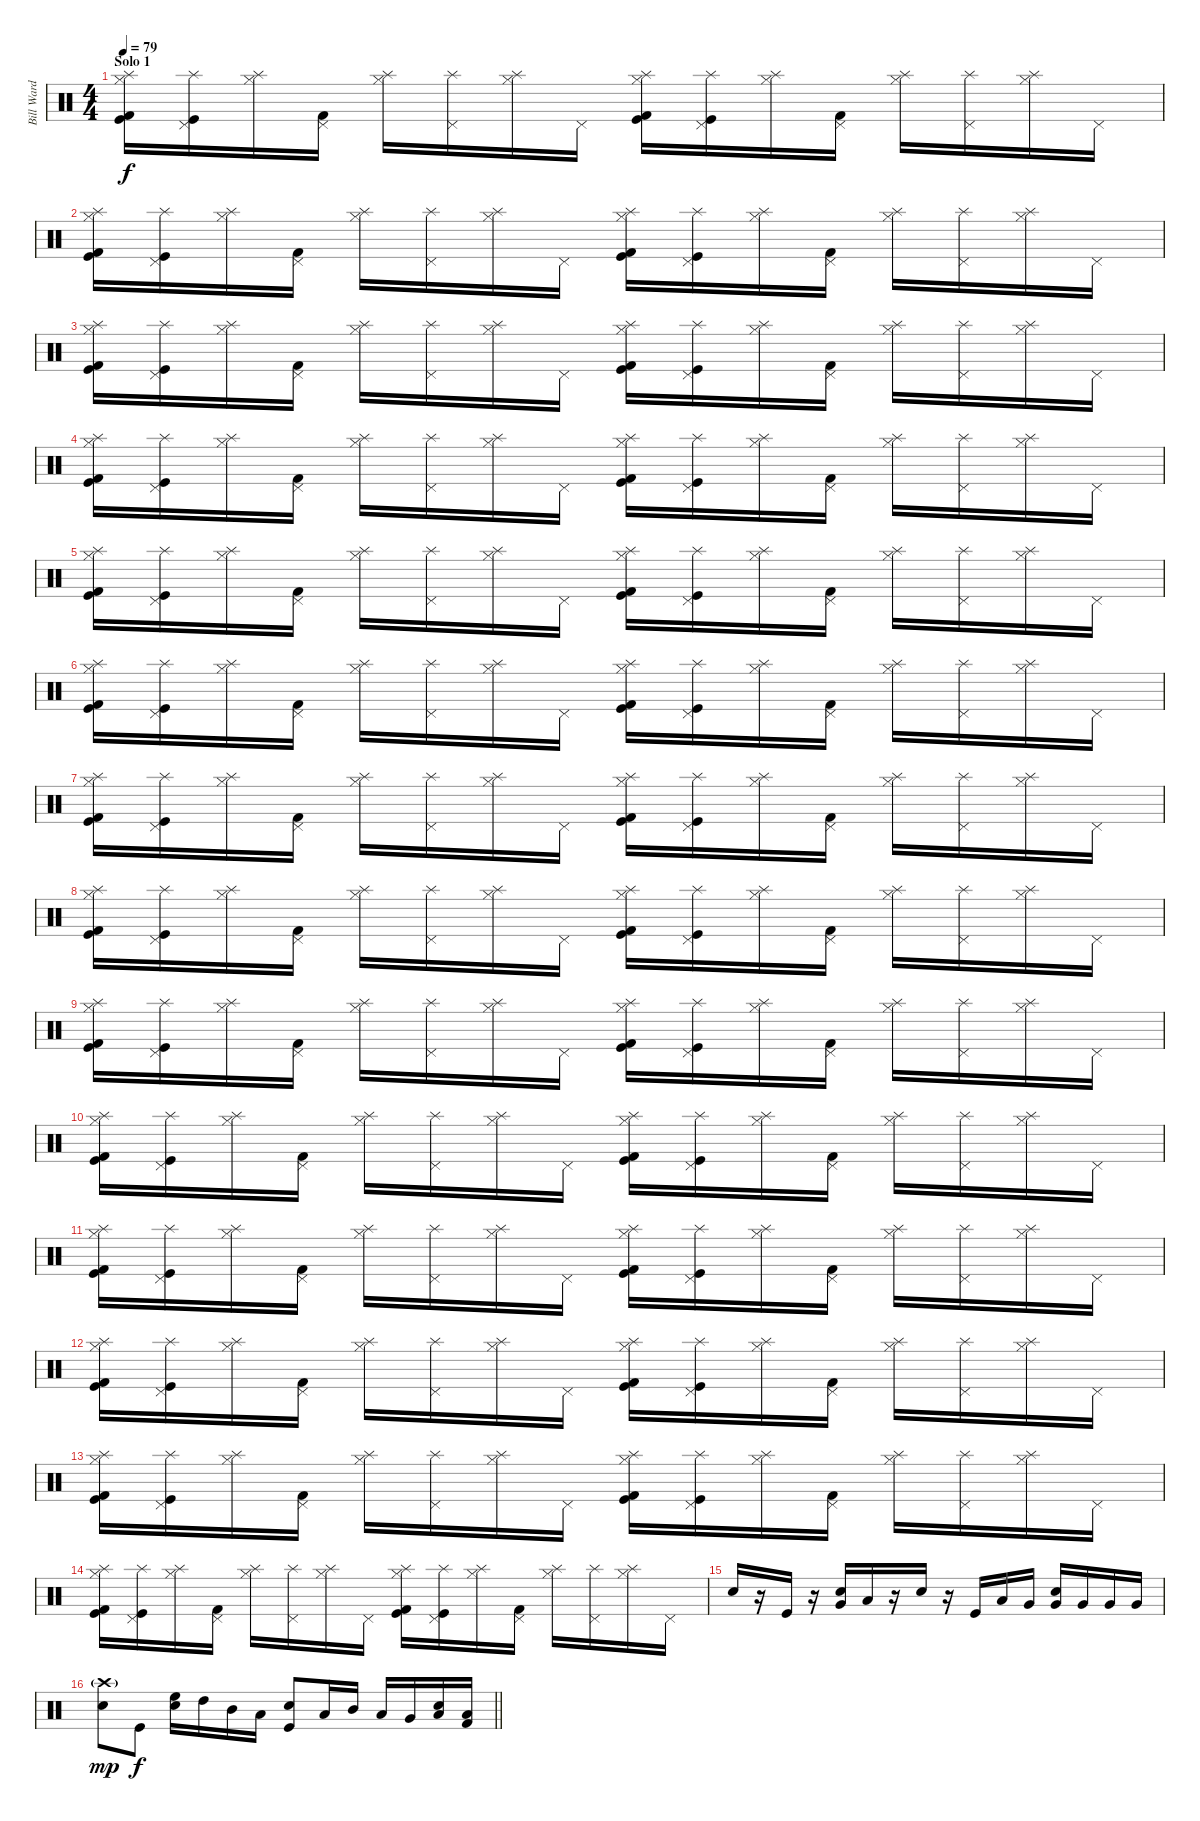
\track ("Bill Ward" "Bill Ward") {instrument percussion}
\staff {score}
\articulation defaults
\ts (4 4)
\section ("" "Solo 1")
\tempo 79
\clef neutral
\ks c
("Hi-Hat (closed)" "Kick (hit) 2" "Splash (hit)" "Kick (hit)").16{dy f} ("Pedal Hi-Hat (hit)" "Splash (hit)" "Kick (hit)").16 ("Hi-Hat (closed)" "Splash (hit)").16 ("Pedal Hi-Hat (hit)" "Kick (hit) 2").16 ("Hi-Hat (closed)" "Splash (hit)").16 ("Pedal Hi-Hat (hit)" "Splash (hit)").16 ("Hi-Hat (closed)" "Splash (hit)").16 "Pedal Hi-Hat (hit)".16 ("Hi-Hat (closed)" "Kick (hit) 2" "Splash (hit)" "Kick (hit)").16 ("Pedal Hi-Hat (hit)" "Splash (hit)" "Kick (hit)").16 ("Hi-Hat (closed)" "Splash (hit)").16 ("Pedal Hi-Hat (hit)" "Kick (hit) 2").16 ("Hi-Hat (closed)" "Splash (hit)").16 ("Pedal Hi-Hat (hit)" "Splash (hit)").16 ("Hi-Hat (closed)" "Splash (hit)").16 "Pedal Hi-Hat (hit)".16 |
("Hi-Hat (closed)" "Kick (hit) 2" "Splash (hit)" "Kick (hit)").16 ("Pedal Hi-Hat (hit)" "Splash (hit)" "Kick (hit)").16 ("Hi-Hat (closed)" "Splash (hit)").16 ("Pedal Hi-Hat (hit)" "Kick (hit) 2").16 ("Hi-Hat (closed)" "Splash (hit)").16 ("Pedal Hi-Hat (hit)" "Splash (hit)").16 ("Hi-Hat (closed)" "Splash (hit)").16 "Pedal Hi-Hat (hit)".16 ("Hi-Hat (closed)" "Kick (hit) 2" "Splash (hit)" "Kick (hit)").16 ("Pedal Hi-Hat (hit)" "Splash (hit)" "Kick (hit)").16 ("Hi-Hat (closed)" "Splash (hit)").16 ("Pedal Hi-Hat (hit)" "Kick (hit) 2").16 ("Hi-Hat (closed)" "Splash (hit)").16 ("Pedal Hi-Hat (hit)" "Splash (hit)").16 ("Hi-Hat (closed)" "Splash (hit)").16 "Pedal Hi-Hat (hit)".16 |
("Hi-Hat (closed)" "Kick (hit) 2" "Splash (hit)" "Kick (hit)").16 ("Pedal Hi-Hat (hit)" "Splash (hit)" "Kick (hit)").16 ("Hi-Hat (closed)" "Splash (hit)").16 ("Pedal Hi-Hat (hit)" "Kick (hit) 2").16 ("Hi-Hat (closed)" "Splash (hit)").16 ("Pedal Hi-Hat (hit)" "Splash (hit)").16 ("Hi-Hat (closed)" "Splash (hit)").16 "Pedal Hi-Hat (hit)".16 ("Hi-Hat (closed)" "Kick (hit) 2" "Splash (hit)" "Kick (hit)").16 ("Pedal Hi-Hat (hit)" "Splash (hit)" "Kick (hit)").16 ("Hi-Hat (closed)" "Splash (hit)").16 ("Pedal Hi-Hat (hit)" "Kick (hit) 2").16 ("Hi-Hat (closed)" "Splash (hit)").16 ("Pedal Hi-Hat (hit)" "Splash (hit)").16 ("Hi-Hat (closed)" "Splash (hit)").16 "Pedal Hi-Hat (hit)".16 |
("Hi-Hat (closed)" "Kick (hit) 2" "Splash (hit)" "Kick (hit)").16 ("Pedal Hi-Hat (hit)" "Splash (hit)" "Kick (hit)").16 ("Hi-Hat (closed)" "Splash (hit)").16 ("Pedal Hi-Hat (hit)" "Kick (hit) 2").16 ("Hi-Hat (closed)" "Splash (hit)").16 ("Pedal Hi-Hat (hit)" "Splash (hit)").16 ("Hi-Hat (closed)" "Splash (hit)").16 "Pedal Hi-Hat (hit)".16 ("Hi-Hat (closed)" "Kick (hit) 2" "Splash (hit)" "Kick (hit)").16 ("Pedal Hi-Hat (hit)" "Splash (hit)" "Kick (hit)").16 ("Hi-Hat (closed)" "Splash (hit)").16 ("Pedal Hi-Hat (hit)" "Kick (hit) 2").16 ("Hi-Hat (closed)" "Splash (hit)").16 ("Pedal Hi-Hat (hit)" "Splash (hit)").16 ("Hi-Hat (closed)" "Splash (hit)").16 "Pedal Hi-Hat (hit)".16 |
("Hi-Hat (closed)" "Kick (hit) 2" "Splash (hit)" "Kick (hit)").16 ("Pedal Hi-Hat (hit)" "Splash (hit)" "Kick (hit)").16 ("Hi-Hat (closed)" "Splash (hit)").16 ("Pedal Hi-Hat (hit)" "Kick (hit) 2").16 ("Hi-Hat (closed)" "Splash (hit)").16 ("Pedal Hi-Hat (hit)" "Splash (hit)").16 ("Hi-Hat (closed)" "Splash (hit)").16 "Pedal Hi-Hat (hit)".16 ("Hi-Hat (closed)" "Kick (hit) 2" "Splash (hit)" "Kick (hit)").16 ("Pedal Hi-Hat (hit)" "Splash (hit)" "Kick (hit)").16 ("Hi-Hat (closed)" "Splash (hit)").16 ("Pedal Hi-Hat (hit)" "Kick (hit) 2").16 ("Hi-Hat (closed)" "Splash (hit)").16 ("Pedal Hi-Hat (hit)" "Splash (hit)").16 ("Hi-Hat (closed)" "Splash (hit)").16 "Pedal Hi-Hat (hit)".16 |
("Hi-Hat (closed)" "Kick (hit) 2" "Splash (hit)" "Kick (hit)").16 ("Pedal Hi-Hat (hit)" "Splash (hit)" "Kick (hit)").16 ("Hi-Hat (closed)" "Splash (hit)").16 ("Pedal Hi-Hat (hit)" "Kick (hit) 2").16 ("Hi-Hat (closed)" "Splash (hit)").16 ("Pedal Hi-Hat (hit)" "Splash (hit)").16 ("Hi-Hat (closed)" "Splash (hit)").16 "Pedal Hi-Hat (hit)".16 ("Hi-Hat (closed)" "Kick (hit) 2" "Splash (hit)" "Kick (hit)").16 ("Pedal Hi-Hat (hit)" "Splash (hit)" "Kick (hit)").16 ("Hi-Hat (closed)" "Splash (hit)").16 ("Pedal Hi-Hat (hit)" "Kick (hit) 2").16 ("Hi-Hat (closed)" "Splash (hit)").16 ("Pedal Hi-Hat (hit)" "Splash (hit)").16 ("Hi-Hat (closed)" "Splash (hit)").16 "Pedal Hi-Hat (hit)".16 |
("Hi-Hat (closed)" "Kick (hit) 2" "Splash (hit)" "Kick (hit)").16 ("Pedal Hi-Hat (hit)" "Splash (hit)" "Kick (hit)").16 ("Hi-Hat (closed)" "Splash (hit)").16 ("Pedal Hi-Hat (hit)" "Kick (hit) 2").16 ("Hi-Hat (closed)" "Splash (hit)").16 ("Pedal Hi-Hat (hit)" "Splash (hit)").16 ("Hi-Hat (closed)" "Splash (hit)").16 "Pedal Hi-Hat (hit)".16 ("Hi-Hat (closed)" "Kick (hit) 2" "Splash (hit)" "Kick (hit)").16 ("Pedal Hi-Hat (hit)" "Splash (hit)" "Kick (hit)").16 ("Hi-Hat (closed)" "Splash (hit)").16 ("Pedal Hi-Hat (hit)" "Kick (hit) 2").16 ("Hi-Hat (closed)" "Splash (hit)").16 ("Pedal Hi-Hat (hit)" "Splash (hit)").16 ("Hi-Hat (closed)" "Splash (hit)").16 "Pedal Hi-Hat (hit)".16 |
("Hi-Hat (closed)" "Kick (hit) 2" "Splash (hit)" "Kick (hit)").16 ("Pedal Hi-Hat (hit)" "Splash (hit)" "Kick (hit)").16 ("Hi-Hat (closed)" "Splash (hit)").16 ("Pedal Hi-Hat (hit)" "Kick (hit) 2").16 ("Hi-Hat (closed)" "Splash (hit)").16 ("Pedal Hi-Hat (hit)" "Splash (hit)").16 ("Hi-Hat (closed)" "Splash (hit)").16 "Pedal Hi-Hat (hit)".16 ("Hi-Hat (closed)" "Kick (hit) 2" "Splash (hit)" "Kick (hit)").16 ("Pedal Hi-Hat (hit)" "Splash (hit)" "Kick (hit)").16 ("Hi-Hat (closed)" "Splash (hit)").16 ("Pedal Hi-Hat (hit)" "Kick (hit) 2").16 ("Hi-Hat (closed)" "Splash (hit)").16 ("Pedal Hi-Hat (hit)" "Splash (hit)").16 ("Hi-Hat (closed)" "Splash (hit)").16 "Pedal Hi-Hat (hit)".16 |
("Hi-Hat (closed)" "Kick (hit) 2" "Splash (hit)" "Kick (hit)").16 ("Pedal Hi-Hat (hit)" "Splash (hit)" "Kick (hit)").16 ("Hi-Hat (closed)" "Splash (hit)").16 ("Pedal Hi-Hat (hit)" "Kick (hit) 2").16 ("Hi-Hat (closed)" "Splash (hit)").16 ("Pedal Hi-Hat (hit)" "Splash (hit)").16 ("Hi-Hat (closed)" "Splash (hit)").16 "Pedal Hi-Hat (hit)".16 ("Hi-Hat (closed)" "Kick (hit) 2" "Splash (hit)" "Kick (hit)").16 ("Pedal Hi-Hat (hit)" "Splash (hit)" "Kick (hit)").16 ("Hi-Hat (closed)" "Splash (hit)").16 ("Pedal Hi-Hat (hit)" "Kick (hit) 2").16 ("Hi-Hat (closed)" "Splash (hit)").16 ("Pedal Hi-Hat (hit)" "Splash (hit)").16 ("Hi-Hat (closed)" "Splash (hit)").16 "Pedal Hi-Hat (hit)".16 |
("Hi-Hat (closed)" "Kick (hit) 2" "Splash (hit)" "Kick (hit)").16 ("Pedal Hi-Hat (hit)" "Splash (hit)" "Kick (hit)").16 ("Hi-Hat (closed)" "Splash (hit)").16 ("Pedal Hi-Hat (hit)" "Kick (hit) 2").16 ("Hi-Hat (closed)" "Splash (hit)").16 ("Pedal Hi-Hat (hit)" "Splash (hit)").16 ("Hi-Hat (closed)" "Splash (hit)").16 "Pedal Hi-Hat (hit)".16 ("Hi-Hat (closed)" "Kick (hit) 2" "Splash (hit)" "Kick (hit)").16 ("Pedal Hi-Hat (hit)" "Splash (hit)" "Kick (hit)").16 ("Hi-Hat (closed)" "Splash (hit)").16 ("Pedal Hi-Hat (hit)" "Kick (hit) 2").16 ("Hi-Hat (closed)" "Splash (hit)").16 ("Pedal Hi-Hat (hit)" "Splash (hit)").16 ("Hi-Hat (closed)" "Splash (hit)").16 "Pedal Hi-Hat (hit)".16 |
("Hi-Hat (closed)" "Kick (hit) 2" "Splash (hit)" "Kick (hit)").16 ("Pedal Hi-Hat (hit)" "Splash (hit)" "Kick (hit)").16 ("Hi-Hat (closed)" "Splash (hit)").16 ("Pedal Hi-Hat (hit)" "Kick (hit) 2").16 ("Hi-Hat (closed)" "Splash (hit)").16 ("Pedal Hi-Hat (hit)" "Splash (hit)").16 ("Hi-Hat (closed)" "Splash (hit)").16 "Pedal Hi-Hat (hit)".16 ("Hi-Hat (closed)" "Kick (hit) 2" "Splash (hit)" "Kick (hit)").16 ("Pedal Hi-Hat (hit)" "Splash (hit)" "Kick (hit)").16 ("Hi-Hat (closed)" "Splash (hit)").16 ("Pedal Hi-Hat (hit)" "Kick (hit) 2").16 ("Hi-Hat (closed)" "Splash (hit)").16 ("Pedal Hi-Hat (hit)" "Splash (hit)").16 ("Hi-Hat (closed)" "Splash (hit)").16 "Pedal Hi-Hat (hit)".16 |
("Hi-Hat (closed)" "Kick (hit) 2" "Splash (hit)" "Kick (hit)").16 ("Pedal Hi-Hat (hit)" "Splash (hit)" "Kick (hit)").16 ("Hi-Hat (closed)" "Splash (hit)").16 ("Pedal Hi-Hat (hit)" "Kick (hit) 2").16 ("Hi-Hat (closed)" "Splash (hit)").16 ("Pedal Hi-Hat (hit)" "Splash (hit)").16 ("Hi-Hat (closed)" "Splash (hit)").16 "Pedal Hi-Hat (hit)".16 ("Hi-Hat (closed)" "Kick (hit) 2" "Splash (hit)" "Kick (hit)").16 ("Pedal Hi-Hat (hit)" "Splash (hit)" "Kick (hit)").16 ("Hi-Hat (closed)" "Splash (hit)").16 ("Pedal Hi-Hat (hit)" "Kick (hit) 2").16 ("Hi-Hat (closed)" "Splash (hit)").16 ("Pedal Hi-Hat (hit)" "Splash (hit)").16 ("Hi-Hat (closed)" "Splash (hit)").16 "Pedal Hi-Hat (hit)".16 |
("Hi-Hat (closed)" "Kick (hit) 2" "Splash (hit)" "Kick (hit)").16 ("Pedal Hi-Hat (hit)" "Splash (hit)" "Kick (hit)").16 ("Hi-Hat (closed)" "Splash (hit)").16 ("Pedal Hi-Hat (hit)" "Kick (hit) 2").16 ("Hi-Hat (closed)" "Splash (hit)").16 ("Pedal Hi-Hat (hit)" "Splash (hit)").16 ("Hi-Hat (closed)" "Splash (hit)").16 "Pedal Hi-Hat (hit)".16 ("Hi-Hat (closed)" "Kick (hit) 2" "Splash (hit)" "Kick (hit)").16 ("Pedal Hi-Hat (hit)" "Splash (hit)" "Kick (hit)").16 ("Hi-Hat (closed)" "Splash (hit)").16 ("Pedal Hi-Hat (hit)" "Kick (hit) 2").16 ("Hi-Hat (closed)" "Splash (hit)").16 ("Pedal Hi-Hat (hit)" "Splash (hit)").16 ("Hi-Hat (closed)" "Splash (hit)").16 "Pedal Hi-Hat (hit)".16 |
("Hi-Hat (closed)" "Kick (hit) 2" "Splash (hit)" "Kick (hit)").16 ("Pedal Hi-Hat (hit)" "Splash (hit)" "Kick (hit)").16 ("Hi-Hat (closed)" "Splash (hit)").16 ("Pedal Hi-Hat (hit)" "Kick (hit) 2").16 ("Hi-Hat (closed)" "Splash (hit)").16 ("Pedal Hi-Hat (hit)" "Splash (hit)").16 ("Hi-Hat (closed)" "Splash (hit)").16 "Pedal Hi-Hat (hit)".16 ("Hi-Hat (closed)" "Kick (hit) 2" "Splash (hit)" "Kick (hit)").16 ("Pedal Hi-Hat (hit)" "Splash (hit)" "Kick (hit)").16 ("Hi-Hat (closed)" "Splash (hit)").16 ("Pedal Hi-Hat (hit)" "Kick (hit) 2").16 ("Hi-Hat (closed)" "Splash (hit)").16 ("Pedal Hi-Hat (hit)" "Splash (hit)").16 ("Hi-Hat (closed)" "Splash (hit)").16 "Pedal Hi-Hat (hit)".16 |
"Electric Snare (hit)".16 r.16 "Kick (hit)".16 r.16 ("Very Low Tom (hit)" "Electric Snare (hit)").16 "Low Floor Tom (hit)".16 r.16 "Electric Snare (hit)".16 r.16 "Kick (hit)".16 "Low Tom (hit)".16 "Very Low Tom (hit)".16 ("Very Low Tom (hit)" "Electric Snare (hit)").16 "Very Low Tom (hit)".16 "Very Low Tom (hit)".16 "Very Low Tom (hit)".16 |
\barLineRight lightlight
("Crash high (hit)"{g} "Electric Snare (hit)").8{dy mp} "Kick (hit)".8{dy f} ("High Floor Tom (hit)" "Electric Snare (hit)").16 "High Tom (hit)".16 "Mid Tom (hit)".16 "Low Tom (hit)".16 ("Electric Snare (hit)" "Kick (hit)").8 "Low Floor Tom (hit)".16 "Mid Tom (hit)".16 "Low Tom (hit)".16 "Very Low Tom (hit)".16 ("Low Floor Tom (hit)" "Electric Snare (hit)").16 ("Low Tom (hit)" "Kick (hit) 2").16
